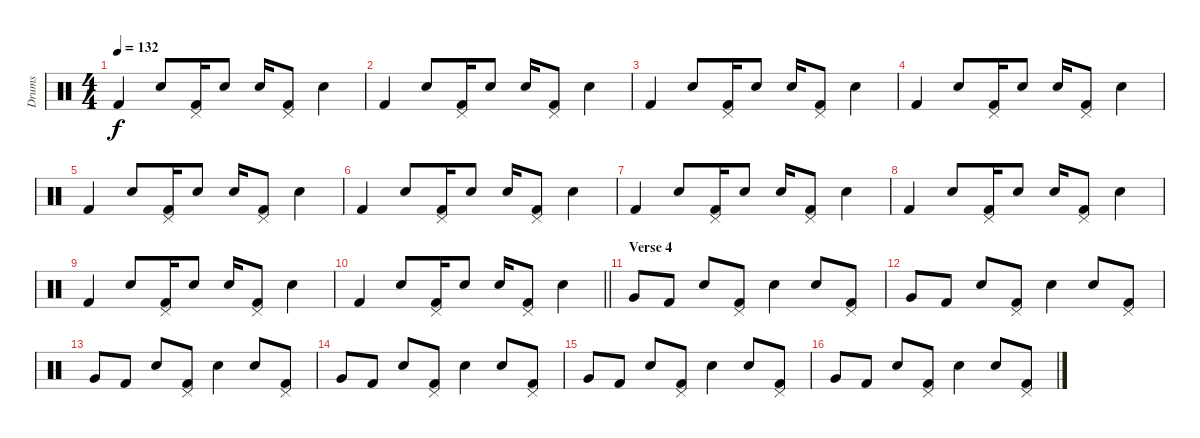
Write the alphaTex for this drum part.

\track ("Drums" "Drums") {instrument percussion}
\staff {score}
\articulation defaults
\ts (4 4)
\tempo 132
\clef neutral
\ks c "Kick (hit) 2".4{dy f} "Snare (hit) 2".8
("Pedal Hi-Hat (hit)" "Kick (hit) 2").16 "Snare (hit) 2".8 "Snare (hit) 2".16 ("Pedal Hi-Hat (hit)" "Kick (hit) 2").8 "Snare (hit) 2".4 |
"Kick (hit) 2".4 "Snare (hit) 2".8 ("Pedal Hi-Hat (hit)" "Kick (hit) 2").16 "Snare (hit) 2".8 "Snare (hit) 2".16 ("Pedal Hi-Hat (hit)" "Kick (hit) 2").8 "Snare (hit) 2".4 |
"Kick (hit) 2".4 "Snare (hit) 2".8 ("Pedal Hi-Hat (hit)" "Kick (hit) 2").16 "Snare (hit) 2".8 "Snare (hit) 2".16 ("Pedal Hi-Hat (hit)" "Kick (hit) 2").8 "Snare (hit) 2".4 |
"Kick (hit) 2".4 "Snare (hit) 2".8 ("Pedal Hi-Hat (hit)" "Kick (hit) 2").16 "Snare (hit) 2".8 "Snare (hit) 2".16 ("Pedal Hi-Hat (hit)" "Kick (hit) 2").8 "Snare (hit) 2".4 |
"Kick (hit) 2".4 "Snare (hit) 2".8 ("Pedal Hi-Hat (hit)" "Kick (hit) 2").16 "Snare (hit) 2".8 "Snare (hit) 2".16 ("Pedal Hi-Hat (hit)" "Kick (hit) 2").8 "Snare (hit) 2".4 |
"Kick (hit) 2".4 "Snare (hit) 2".8 ("Pedal Hi-Hat (hit)" "Kick (hit) 2").16 "Snare (hit) 2".8 "Snare (hit) 2".16 ("Pedal Hi-Hat (hit)" "Kick (hit) 2").8 "Snare (hit) 2".4 |
"Kick (hit) 2".4 "Snare (hit) 2".8 ("Pedal Hi-Hat (hit)" "Kick (hit) 2").16 "Snare (hit) 2".8 "Snare (hit) 2".16 ("Pedal Hi-Hat (hit)" "Kick (hit) 2").8 "Snare (hit) 2".4 |
"Kick (hit) 2".4 "Snare (hit) 2".8 ("Pedal Hi-Hat (hit)" "Kick (hit) 2").16 "Snare (hit) 2".8 "Snare (hit) 2".16 ("Pedal Hi-Hat (hit)" "Kick (hit) 2").8 "Snare (hit) 2".4 |
"Kick (hit) 2".4 "Snare (hit) 2".8 ("Pedal Hi-Hat (hit)" "Kick (hit) 2").16 "Snare (hit) 2".8 "Snare (hit) 2".16 ("Pedal Hi-Hat (hit)" "Kick (hit) 2").8 "Snare (hit) 2".4 |
\barLineRight lightlight "Kick (hit) 2".4 "Snare (hit) 2".8
("Pedal Hi-Hat (hit)" "Kick (hit) 2").16 "Snare (hit) 2".8 "Snare (hit) 2".16 ("Pedal Hi-Hat (hit)" "Kick (hit) 2").8 "Snare (hit) 2".4 |
\section ("" "Verse 4")
"Very Low Tom (hit)".8 "Kick (hit) 2".8 "Snare (hit) 2".8 ("Pedal Hi-Hat (hit)" "Kick (hit) 2").8 "Snare (hit) 2".4 "Snare (hit) 2".8 ("Pedal Hi-Hat (hit)" "Kick (hit) 2").8 |
"Very Low Tom (hit)".8 "Kick (hit) 2".8 "Snare (hit) 2".8 ("Pedal Hi-Hat (hit)" "Kick (hit) 2").8 "Snare (hit) 2".4 "Snare (hit) 2".8 ("Pedal Hi-Hat (hit)" "Kick (hit) 2").8 |
"Very Low Tom (hit)".8 "Kick (hit) 2".8 "Snare (hit) 2".8 ("Pedal Hi-Hat (hit)" "Kick (hit) 2").8 "Snare (hit) 2".4 "Snare (hit) 2".8 ("Pedal Hi-Hat (hit)" "Kick (hit) 2").8 |
"Very Low Tom (hit)".8 "Kick (hit) 2".8 "Snare (hit) 2".8 ("Pedal Hi-Hat (hit)" "Kick (hit) 2").8 "Snare (hit) 2".4 "Snare (hit) 2".8 ("Pedal Hi-Hat (hit)" "Kick (hit) 2").8 |
"Very Low Tom (hit)".8 "Kick (hit) 2".8 "Snare (hit) 2".8 ("Pedal Hi-Hat (hit)" "Kick (hit) 2").8 "Snare (hit) 2".4 "Snare (hit) 2".8 ("Pedal Hi-Hat (hit)" "Kick (hit) 2").8 |
"Very Low Tom (hit)".8 "Kick (hit) 2".8 "Snare (hit) 2".8 ("Pedal Hi-Hat (hit)" "Kick (hit) 2").8 "Snare (hit) 2".4 "Snare (hit) 2".8 ("Pedal Hi-Hat (hit)" "Kick (hit) 2").8
